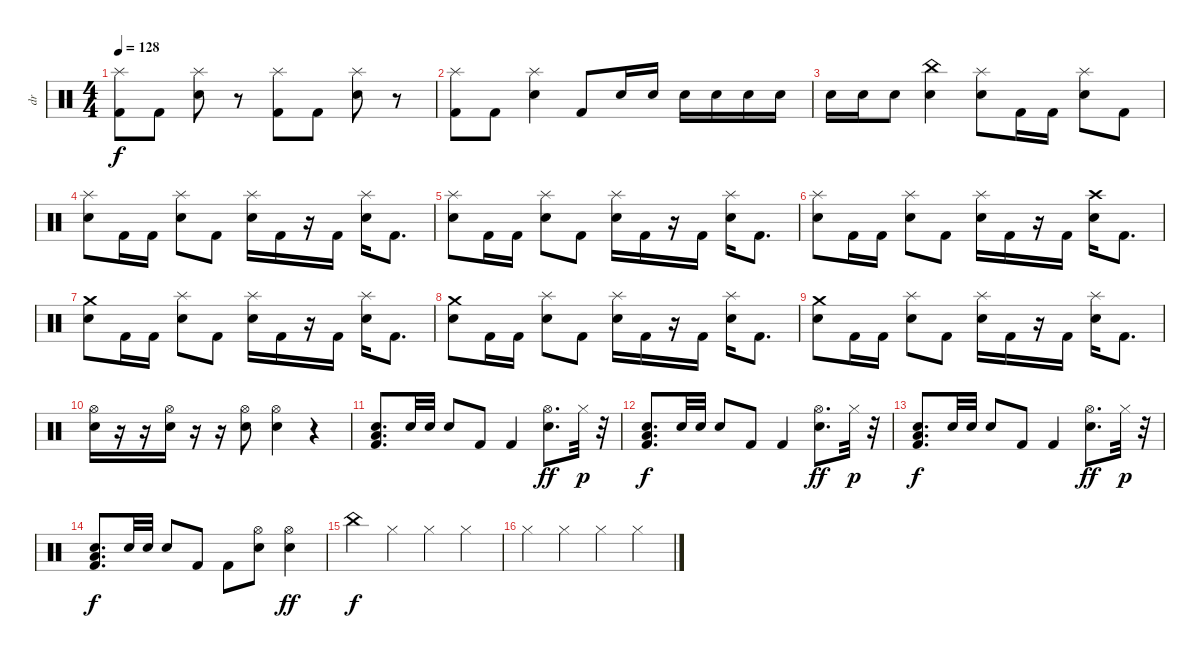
\track ("dr" "dr") {instrument percussion}
\staff {score}
\articulation defaults
\ts (4 4)
\tempo 128
\clef neutral
\ks c
("Splash (hit)" "Kick (hit) 2").8{dy f} "Kick (hit) 2".8 ("Splash (hit)" "Electric Snare (hit)").8 r.8 ("Splash (hit)" "Kick (hit) 2").8 "Kick (hit) 2".8 ("Splash (hit)" "Electric Snare (hit)").8 r.8 |
("Splash (hit)" "Kick (hit) 2").8 "Kick (hit) 2".8 ("Splash (hit)" "Electric Snare (hit)").4 "Kick (hit) 2".8 "Electric Snare (hit)".16 "Electric Snare (hit)".16 "Electric Snare (hit)".16 "Electric Snare (hit)".16 "Electric Snare (hit)".16 "Electric Snare (hit)".16 |
"Electric Snare (hit)".16 "Electric Snare (hit)".16 "Electric Snare (hit)".8 ("China (hit)" "Electric Snare (hit)").4 ("Splash (hit)" "Electric Snare (hit)").8 "Kick (hit) 2".16 "Kick (hit) 2".16 ("Splash (hit)" "Electric Snare (hit)").8 "Kick (hit) 2".8 |
("Splash (hit)" "Electric Snare (hit)").8 "Kick (hit) 2".16 "Kick (hit) 2".16 ("Splash (hit)" "Electric Snare (hit)").8 "Kick (hit) 2".8 ("Splash (hit)" "Electric Snare (hit)").16 "Kick (hit) 2".16 r.16 "Kick (hit) 2".16 ("Splash (hit)" "Electric Snare (hit)").16 "Kick (hit) 2".8{d} |
("Splash (hit)" "Electric Snare (hit)").8 "Kick (hit) 2".16 "Kick (hit) 2".16 ("Splash (hit)" "Electric Snare (hit)").8 "Kick (hit) 2".8 ("Splash (hit)" "Electric Snare (hit)").16 "Kick (hit) 2".16 r.16 "Kick (hit) 2".16 ("Splash (hit)" "Electric Snare (hit)").16 "Kick (hit) 2".8{d} |
("Splash (hit)" "Electric Snare (hit)").8 "Kick (hit) 2".16 "Kick (hit) 2".16 ("Splash (hit)" "Electric Snare (hit)").8 "Kick (hit) 2".8 ("Splash (hit)" "Electric Snare (hit)").16 "Kick (hit) 2".16 r.16 "Kick (hit) 2".16 ("Crash high (hit)" "Electric Snare (hit)").16 "Kick (hit) 2".8{d} |
("Crash medium (hit)" "Electric Snare (hit)").8 "Kick (hit) 2".16 "Kick (hit) 2".16 ("Splash (hit)" "Electric Snare (hit)").8 "Kick (hit) 2".8 ("Splash (hit)" "Electric Snare (hit)").16 "Kick (hit) 2".16 r.16 "Kick (hit) 2".16 ("Splash (hit)" "Electric Snare (hit)").16 "Kick (hit) 2".8{d} |
("Crash medium (hit)" "Electric Snare (hit)").8 "Kick (hit) 2".16 "Kick (hit) 2".16 ("Splash (hit)" "Electric Snare (hit)").8 "Kick (hit) 2".8 ("Splash (hit)" "Electric Snare (hit)").16 "Kick (hit) 2".16 r.16 "Kick (hit) 2".16 ("Splash (hit)" "Electric Snare (hit)").16 "Kick (hit) 2".8{d} |
("Crash medium (hit)" "Electric Snare (hit)").8 "Kick (hit) 2".16 "Kick (hit) 2".16 ("Splash (hit)" "Electric Snare (hit)").8 "Kick (hit) 2".8 ("Splash (hit)" "Electric Snare (hit)").16 "Kick (hit) 2".16 r.16 "Kick (hit) 2".16 ("Splash (hit)" "Electric Snare (hit)").16 "Kick (hit) 2".8{d} |
("Hi-Hat (open)" "Electric Snare (hit)").16 r.16 r.16 ("Hi-Hat (open)" "Electric Snare (hit)").16 r.16 r.16 ("Hi-Hat (open)" "Electric Snare (hit)").8 ("Hi-Hat (open)" "Electric Snare (hit)").4 r.4 |
("Electric Snare (hit)" "Low Floor Tom (hit)" "Kick (hit) 2").8{d} "Electric Snare (hit)".32 "Electric Snare (hit)".32 "Electric Snare (hit)".8 "Kick (hit) 2".8 "Kick (hit) 2".4 ("Hi-Hat (open)" "Electric Snare (hit)").8{d dy ff} "Hi-Hat (closed)".32{dy p} r.32 |
("Electric Snare (hit)" "Low Floor Tom (hit)" "Kick (hit) 2").8{d dy f} "Electric Snare (hit)".32 "Electric Snare (hit)".32 "Electric Snare (hit)".8 "Kick (hit) 2".8 "Kick (hit) 2".4 ("Hi-Hat (open)" "Electric Snare (hit)").8{d dy ff} "Hi-Hat (closed)".32{dy p} r.32 |
("Electric Snare (hit)" "Low Floor Tom (hit)" "Kick (hit) 2").8{d dy f} "Electric Snare (hit)".32 "Electric Snare (hit)".32 "Electric Snare (hit)".8 "Kick (hit) 2".8 "Kick (hit) 2".4 ("Hi-Hat (open)" "Electric Snare (hit)").8{d dy ff} "Hi-Hat (closed)".32{dy p} r.32 |
("Electric Snare (hit)" "Low Floor Tom (hit)" "Kick (hit) 2").8{d dy f} "Electric Snare (hit)".32 "Electric Snare (hit)".32 "Electric Snare (hit)".8 "Kick (hit) 2".8 "Kick (hit) 2".8 ("Hi-Hat (open)" "Electric Snare (hit)").8 ("Hi-Hat (open)" "Electric Snare (hit)").4{dy ff} |
"China (hit)".4{dy f} "Hi-Hat (closed)".4 "Hi-Hat (closed)".4 "Hi-Hat (closed)".4 |
"Hi-Hat (closed)".4 "Hi-Hat (closed)".4 "Hi-Hat (closed)".4 "Hi-Hat (closed)".4
